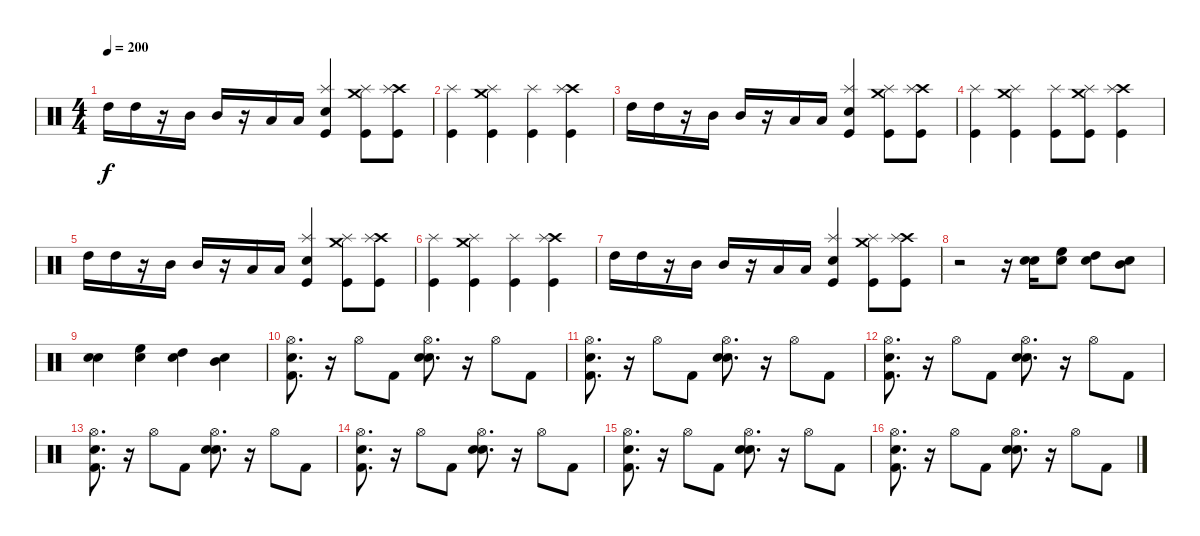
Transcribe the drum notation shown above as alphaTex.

\track "" {instrument percussion}
\staff {score}
\articulation defaults
\ts (4 4)
\tempo 200
\clef neutral
\ks c "High Tom (hit)".16{dy f} "High Tom (hit)".16
r.16 "Mid Tom (hit)".16 "Mid Tom (hit)".16 r.16 "Low Tom (hit)".16 "Low Tom (hit)".16 ("Electric Snare (hit)" "Splash (hit)" "Kick (hit)").4 ("Crash medium (hit)" "Splash (hit)" "Kick (hit)").8 ("Crash high (hit)" "Splash (hit)" "Kick (hit)").8 |
("Splash (hit)" "Kick (hit)").4 ("Crash medium (hit)" "Splash (hit)" "Kick (hit)").4 ("Splash (hit)" "Kick (hit)").4 ("Crash high (hit)" "Splash (hit)" "Kick (hit)").4 |
"High Tom (hit)".16 "High Tom (hit)".16 r.16 "Mid Tom (hit)".16 "Mid Tom (hit)".16 r.16 "Low Tom (hit)".16 "Low Tom (hit)".16 ("Electric Snare (hit)" "Splash (hit)" "Kick (hit)").4 ("Crash medium (hit)" "Splash (hit)" "Kick (hit)").8 ("Crash high (hit)" "Splash (hit)" "Kick (hit)").8 |
("Splash (hit)" "Kick (hit)").4 ("Crash medium (hit)" "Splash (hit)" "Kick (hit)").4 ("Splash (hit)" "Kick (hit)").8 ("Crash medium (hit)" "Splash (hit)" "Kick (hit)").8 ("Crash high (hit)" "Splash (hit)" "Kick (hit)").4 |
"High Tom (hit)".16 "High Tom (hit)".16 r.16 "Mid Tom (hit)".16 "Mid Tom (hit)".16 r.16 "Low Tom (hit)".16 "Low Tom (hit)".16 ("Electric Snare (hit)" "Splash (hit)" "Kick (hit)").4 ("Crash medium (hit)" "Splash (hit)" "Kick (hit)").8 ("Crash high (hit)" "Splash (hit)" "Kick (hit)").8 |
("Splash (hit)" "Kick (hit)").4 ("Crash medium (hit)" "Splash (hit)" "Kick (hit)").4 ("Splash (hit)" "Kick (hit)").4 ("Crash high (hit)" "Splash (hit)" "Kick (hit)").4 |
"High Tom (hit)".16 "High Tom (hit)".16 r.16 "Mid Tom (hit)".16 "Mid Tom (hit)".16 r.16 "Low Tom (hit)".16 "Low Tom (hit)".16 ("Electric Snare (hit)" "Splash (hit)" "Kick (hit)").4 ("Crash medium (hit)" "Splash (hit)" "Kick (hit)").8 ("Crash high (hit)" "Splash (hit)" "Kick (hit)").8 |
r.2 r.16 ("Snare (hit)" "Snare (hit) 2").16 ("Snare (hit)" "High Floor Tom (hit)").8 ("Snare (hit)" "High Tom (hit)").8 ("Snare (hit)" "Mid Tom (hit)").8 |
("Snare (hit)" "Snare (hit) 2").4 ("Snare (hit)" "High Floor Tom (hit)").4 ("Snare (hit)" "High Tom (hit)").4 ("Snare (hit)" "Mid Tom (hit)").4 |
("Snare (hit)" "Kick (hit) 2" "Hi-Hat (open)").8{d} r.16 "Hi-Hat (open)".8 "Kick (hit) 2".8 ("Snare (hit)" "Snare (hit) 2" "Hi-Hat (open)").8{d} r.16 "Hi-Hat (open)".8 "Kick (hit) 2".8 |
("Snare (hit)" "Kick (hit) 2" "Hi-Hat (open)").8{d} r.16 "Hi-Hat (open)".8 "Kick (hit) 2".8 ("Snare (hit)" "Snare (hit) 2" "Hi-Hat (open)").8{d} r.16 "Hi-Hat (open)".8 "Kick (hit) 2".8 |
("Snare (hit)" "Kick (hit) 2" "Hi-Hat (open)").8{d} r.16 "Hi-Hat (open)".8 "Kick (hit) 2".8 ("Snare (hit)" "Snare (hit) 2" "Hi-Hat (open)").8{d} r.16 "Hi-Hat (open)".8 "Kick (hit) 2".8 |
("Snare (hit)" "Kick (hit) 2" "Hi-Hat (open)").8{d} r.16 "Hi-Hat (open)".8 "Kick (hit) 2".8 ("Snare (hit)" "Snare (hit) 2" "Hi-Hat (open)").8{d} r.16 "Hi-Hat (open)".8 "Kick (hit) 2".8 |
("Snare (hit)" "Kick (hit) 2" "Hi-Hat (open)").8{d} r.16 "Hi-Hat (open)".8 "Kick (hit) 2".8 ("Snare (hit)" "Snare (hit) 2" "Hi-Hat (open)").8{d} r.16 "Hi-Hat (open)".8 "Kick (hit) 2".8 |
("Snare (hit)" "Kick (hit) 2" "Hi-Hat (open)").8{d} r.16 "Hi-Hat (open)".8 "Kick (hit) 2".8 ("Snare (hit)" "Snare (hit) 2" "Hi-Hat (open)").8{d} r.16 "Hi-Hat (open)".8 "Kick (hit) 2".8 |
("Snare (hit)" "Kick (hit) 2" "Hi-Hat (open)").8{d} r.16 "Hi-Hat (open)".8 "Kick (hit) 2".8 ("Snare (hit)" "Snare (hit) 2" "Hi-Hat (open)").8{d} r.16 "Hi-Hat (open)".8 "Kick (hit) 2".8
